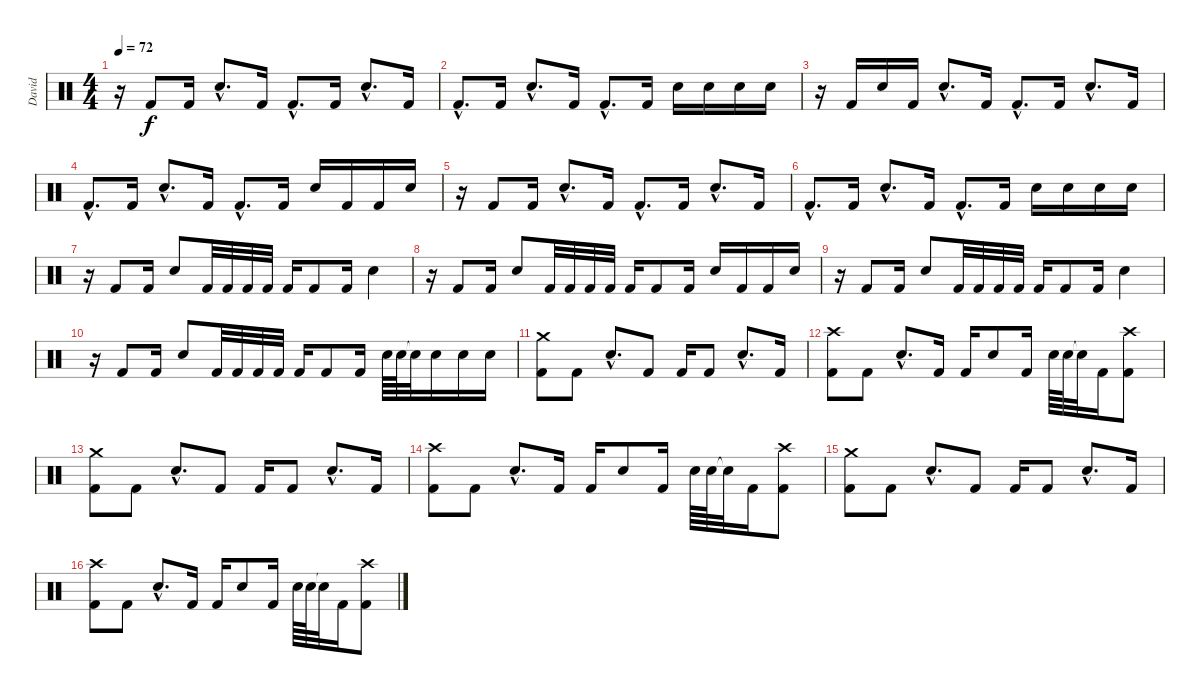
\track ("David" "David") {instrument percussion}
\staff {score}
\articulation defaults
\ts (4 4)
\tempo 72
\clef neutral
\ks c
r.16{dy f} "Kick (hit) 2".8 "Kick (hit) 2".16 "Snare (hit) 2"{hac}.8{d} "Kick (hit) 2".16 "Kick (hit) 2"{hac}.8{d} "Kick (hit) 2".16 "Snare (hit) 2"{hac}.8{d} "Kick (hit) 2".16 |
"Kick (hit) 2"{hac}.8{d} "Kick (hit) 2".16 "Snare (hit) 2"{hac}.8{d} "Kick (hit) 2".16 "Kick (hit) 2"{hac}.8{d} "Kick (hit) 2".16 "Snare (hit) 2".16 "Snare (hit) 2".16 "Snare (hit) 2".16 "Snare (hit) 2".16 |
r.16 "Kick (hit) 2".16 "Snare (hit) 2".16 "Kick (hit) 2".16 "Snare (hit) 2"{hac}.8{d} "Kick (hit) 2".16 "Kick (hit) 2"{hac}.8{d} "Kick (hit) 2".16 "Snare (hit) 2"{hac}.8{d} "Kick (hit) 2".16 |
"Kick (hit) 2"{hac}.8{d} "Kick (hit) 2".16 "Snare (hit) 2"{hac}.8{d} "Kick (hit) 2".16 "Kick (hit) 2"{hac}.8{d} "Kick (hit) 2".16 "Snare (hit) 2".16 "Kick (hit) 2".16 "Kick (hit) 2".16 "Snare (hit) 2".16 |
r.16 "Kick (hit) 2".8 "Kick (hit) 2".16 "Snare (hit) 2"{hac}.8{d} "Kick (hit) 2".16 "Kick (hit) 2"{hac}.8{d} "Kick (hit) 2".16 "Snare (hit) 2"{hac}.8{d} "Kick (hit) 2".16 |
"Kick (hit) 2"{hac}.8{d} "Kick (hit) 2".16 "Snare (hit) 2"{hac}.8{d} "Kick (hit) 2".16 "Kick (hit) 2"{hac}.8{d} "Kick (hit) 2".16 "Snare (hit) 2".16 "Snare (hit) 2".16 "Snare (hit) 2".16 "Snare (hit) 2".16 |
r.16 "Kick (hit) 2".8 "Kick (hit) 2".16 "Snare (hit) 2".8 "Kick (hit) 2".32 "Kick (hit) 2".32 "Kick (hit) 2".32 "Kick (hit) 2".32 "Kick (hit) 2".16 "Kick (hit) 2".8 "Kick (hit) 2".16 "Snare (hit) 2".4 |
r.16 "Kick (hit) 2".8 "Kick (hit) 2".16 "Snare (hit) 2".8 "Kick (hit) 2".32 "Kick (hit) 2".32 "Kick (hit) 2".32 "Kick (hit) 2".32 "Kick (hit) 2".16 "Kick (hit) 2".8 "Kick (hit) 2".16 "Snare (hit) 2".16 "Kick (hit) 2".16 "Kick (hit) 2".16 "Snare (hit) 2".16 |
r.16 "Kick (hit) 2".8 "Kick (hit) 2".16 "Snare (hit) 2".8 "Kick (hit) 2".32 "Kick (hit) 2".32 "Kick (hit) 2".32 "Kick (hit) 2".32 "Kick (hit) 2".16 "Kick (hit) 2".8 "Kick (hit) 2".16 "Snare (hit) 2".4 |
r.16 "Kick (hit) 2".8 "Kick (hit) 2".16 "Snare (hit) 2".8 "Kick (hit) 2".32 "Kick (hit) 2".32 "Kick (hit) 2".32 "Kick (hit) 2".32 "Kick (hit) 2".16 "Kick (hit) 2".8 "Kick (hit) 2".16 "Snare (hit) 2".64 "Snare (hit) 2".64 "Snare (hit)"{t}.32 "Snare (hit) 2".16 "Snare (hit) 2".16 "Snare (hit) 2".16 |
("Crash medium (hit)" "Kick (hit) 2").8 "Kick (hit) 2".8 "Snare (hit) 2"{hac}.8{d} "Kick (hit) 2".8 "Kick (hit) 2".16 "Kick (hit) 2".8 "Snare (hit) 2"{hac}.8{d} "Kick (hit) 2".16 |
("Crash high (hit)" "Kick (hit) 2").8 "Kick (hit) 2".8 "Snare (hit) 2"{hac}.8{d} "Kick (hit) 2".16 "Kick (hit) 2".16 "Snare (hit) 2".8 "Kick (hit) 2".16 "Snare (hit) 2".64 "Snare (hit) 2".64 "Snare (hit)"{t}.32 "Kick (hit) 2".16 ("Crash high (hit)" "Kick (hit) 2").8 |
("Crash medium (hit)" "Kick (hit) 2").8 "Kick (hit) 2".8 "Snare (hit) 2"{hac}.8{d} "Kick (hit) 2".8 "Kick (hit) 2".16 "Kick (hit) 2".8 "Snare (hit) 2"{hac}.8{d} "Kick (hit) 2".16 |
("Crash high (hit)" "Kick (hit) 2").8 "Kick (hit) 2".8 "Snare (hit) 2"{hac}.8{d} "Kick (hit) 2".16 "Kick (hit) 2".16 "Snare (hit) 2".8 "Kick (hit) 2".16 "Snare (hit) 2".64 "Snare (hit) 2".64 "Snare (hit)"{t}.32 "Kick (hit) 2".16 ("Crash high (hit)" "Kick (hit) 2").8 |
("Crash medium (hit)" "Kick (hit) 2").8 "Kick (hit) 2".8 "Snare (hit) 2"{hac}.8{d} "Kick (hit) 2".8 "Kick (hit) 2".16 "Kick (hit) 2".8 "Snare (hit) 2"{hac}.8{d} "Kick (hit) 2".16 |
("Crash high (hit)" "Kick (hit) 2").8 "Kick (hit) 2".8 "Snare (hit) 2"{hac}.8{d} "Kick (hit) 2".16 "Kick (hit) 2".16 "Snare (hit) 2".8 "Kick (hit) 2".16 "Snare (hit) 2".64 "Snare (hit) 2".64 "Snare (hit)"{t}.32 "Kick (hit) 2".16 ("Crash high (hit)" "Kick (hit) 2").8
